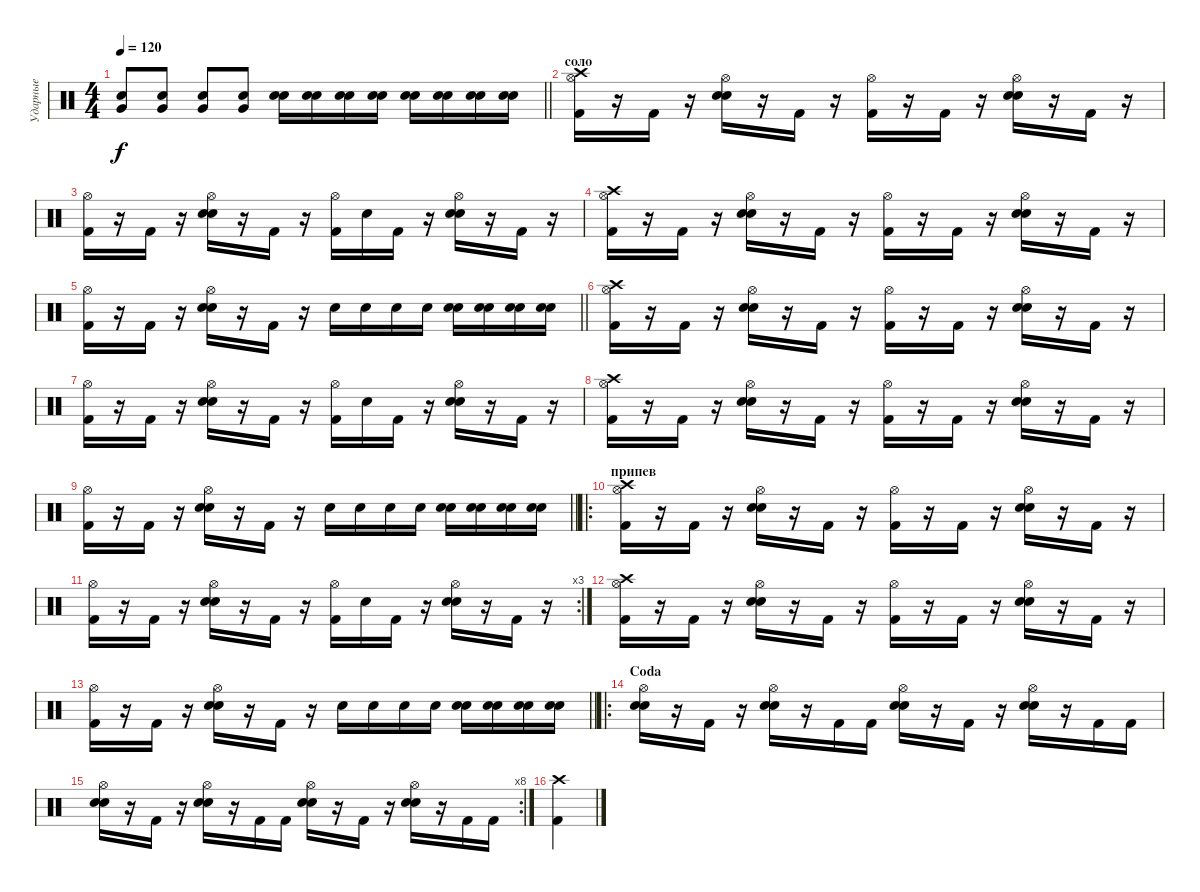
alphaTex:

\track ("Ударные" "Ударные") {instrument percussion}
\staff {score}
\articulation defaults
\ts (4 4)
\tempo 120
\clef neutral
\barLineRight lightlight
\ks c
("Very Low Tom (hit)" "Electric Snare (hit)").8{dy f} ("Very Low Tom (hit)" "Electric Snare (hit)").8 ("Very Low Tom (hit)" "Electric Snare (hit)").8 ("Very Low Tom (hit)" "Electric Snare (hit)").8 ("Electric Snare (hit)" "Electric Snare (hit)").16 ("Electric Snare (hit)" "Electric Snare (hit)").16 ("Electric Snare (hit)" "Electric Snare (hit)").16 ("Electric Snare (hit)" "Electric Snare (hit)").16 ("Electric Snare (hit)" "Electric Snare (hit)").16 ("Electric Snare (hit)" "Electric Snare (hit)").16 ("Electric Snare (hit)" "Electric Snare (hit)").16 ("Electric Snare (hit)" "Electric Snare (hit)").16 |
\section ("" "соло")
("Crash high (hit)" "Kick (hit) 2" "Hi-Hat (open)").16 r.16 "Kick (hit) 2".16 r.16 ("Electric Snare (hit)" "Electric Snare (hit)" "Hi-Hat (open)").16 r.16 "Kick (hit) 2".16 r.16 ("Kick (hit) 2" "Hi-Hat (open)").16 r.16 "Kick (hit) 2".16 r.16 ("Electric Snare (hit)" "Electric Snare (hit)" "Hi-Hat (open)").16 r.16 "Kick (hit) 2".16 r.16 |
("Kick (hit) 2" "Hi-Hat (open)").16 r.16 "Kick (hit) 2".16 r.16 ("Electric Snare (hit)" "Electric Snare (hit)" "Hi-Hat (open)").16 r.16 "Kick (hit) 2".16 r.16 ("Kick (hit) 2" "Hi-Hat (open)").16 "Electric Snare (hit)".16 "Kick (hit) 2".16 r.16 ("Electric Snare (hit)" "Electric Snare (hit)" "Hi-Hat (open)").16 r.16 "Kick (hit) 2".16 r.16 |
("Crash high (hit)" "Kick (hit) 2" "Hi-Hat (open)").16 r.16 "Kick (hit) 2".16 r.16 ("Electric Snare (hit)" "Electric Snare (hit)" "Hi-Hat (open)").16 r.16 "Kick (hit) 2".16 r.16 ("Kick (hit) 2" "Hi-Hat (open)").16 r.16 "Kick (hit) 2".16 r.16 ("Electric Snare (hit)" "Electric Snare (hit)" "Hi-Hat (open)").16 r.16 "Kick (hit) 2".16 r.16 |
\barLineRight lightlight
("Kick (hit) 2" "Hi-Hat (open)").16 r.16 "Kick (hit) 2".16 r.16 ("Electric Snare (hit)" "Electric Snare (hit)" "Hi-Hat (open)").16 r.16 "Kick (hit) 2".16 r.16 "Electric Snare (hit)".16 "Electric Snare (hit)".16 "Electric Snare (hit)".16 "Electric Snare (hit)".16 ("Electric Snare (hit)" "Electric Snare (hit)").16 ("Electric Snare (hit)" "Electric Snare (hit)").16 ("Electric Snare (hit)" "Electric Snare (hit)").16 ("Electric Snare (hit)" "Electric Snare (hit)").16 |
("Crash high (hit)" "Kick (hit) 2" "Hi-Hat (open)").16 r.16 "Kick (hit) 2".16 r.16 ("Electric Snare (hit)" "Electric Snare (hit)" "Hi-Hat (open)").16 r.16 "Kick (hit) 2".16 r.16 ("Kick (hit) 2" "Hi-Hat (open)").16 r.16 "Kick (hit) 2".16 r.16 ("Electric Snare (hit)" "Electric Snare (hit)" "Hi-Hat (open)").16 r.16 "Kick (hit) 2".16 r.16 |
("Kick (hit) 2" "Hi-Hat (open)").16 r.16 "Kick (hit) 2".16 r.16 ("Electric Snare (hit)" "Electric Snare (hit)" "Hi-Hat (open)").16 r.16 "Kick (hit) 2".16 r.16 ("Kick (hit) 2" "Hi-Hat (open)").16 "Electric Snare (hit)".16 "Kick (hit) 2".16 r.16 ("Electric Snare (hit)" "Electric Snare (hit)" "Hi-Hat (open)").16 r.16 "Kick (hit) 2".16 r.16 |
("Crash high (hit)" "Kick (hit) 2" "Hi-Hat (open)").16 r.16 "Kick (hit) 2".16 r.16 ("Electric Snare (hit)" "Electric Snare (hit)" "Hi-Hat (open)").16 r.16 "Kick (hit) 2".16 r.16 ("Kick (hit) 2" "Hi-Hat (open)").16 r.16 "Kick (hit) 2".16 r.16 ("Electric Snare (hit)" "Electric Snare (hit)" "Hi-Hat (open)").16 r.16 "Kick (hit) 2".16 r.16 |
\barLineRight lightlight
("Kick (hit) 2" "Hi-Hat (open)").16 r.16 "Kick (hit) 2".16 r.16 ("Electric Snare (hit)" "Electric Snare (hit)" "Hi-Hat (open)").16 r.16 "Kick (hit) 2".16 r.16 "Electric Snare (hit)".16 "Electric Snare (hit)".16 "Electric Snare (hit)".16 "Electric Snare (hit)".16 ("Electric Snare (hit)" "Electric Snare (hit)").16 ("Electric Snare (hit)" "Electric Snare (hit)").16 ("Electric Snare (hit)" "Electric Snare (hit)").16 ("Electric Snare (hit)" "Electric Snare (hit)").16 |
\ro
\section ("" "припев")
("Crash high (hit)" "Kick (hit) 2" "Hi-Hat (open)").16 r.16 "Kick (hit) 2".16 r.16 ("Electric Snare (hit)" "Electric Snare (hit)" "Hi-Hat (open)").16 r.16 "Kick (hit) 2".16 r.16 ("Kick (hit) 2" "Hi-Hat (open)").16 r.16 "Kick (hit) 2".16 r.16 ("Electric Snare (hit)" "Electric Snare (hit)" "Hi-Hat (open)").16 r.16 "Kick (hit) 2".16 r.16 |
\rc 3
("Kick (hit) 2" "Hi-Hat (open)").16 r.16 "Kick (hit) 2".16 r.16 ("Electric Snare (hit)" "Electric Snare (hit)" "Hi-Hat (open)").16 r.16 "Kick (hit) 2".16 r.16 ("Kick (hit) 2" "Hi-Hat (open)").16 "Electric Snare (hit)".16 "Kick (hit) 2".16 r.16 ("Electric Snare (hit)" "Electric Snare (hit)" "Hi-Hat (open)").16 r.16 "Kick (hit) 2".16 r.16 |
("Crash high (hit)" "Kick (hit) 2" "Hi-Hat (open)").16 r.16 "Kick (hit) 2".16 r.16 ("Electric Snare (hit)" "Electric Snare (hit)" "Hi-Hat (open)").16 r.16 "Kick (hit) 2".16 r.16 ("Kick (hit) 2" "Hi-Hat (open)").16 r.16 "Kick (hit) 2".16 r.16 ("Electric Snare (hit)" "Electric Snare (hit)" "Hi-Hat (open)").16 r.16 "Kick (hit) 2".16 r.16 |
\barLineRight lightlight
("Kick (hit) 2" "Hi-Hat (open)").16 r.16 "Kick (hit) 2".16 r.16 ("Electric Snare (hit)" "Electric Snare (hit)" "Hi-Hat (open)").16 r.16 "Kick (hit) 2".16 r.16 "Electric Snare (hit)".16 "Electric Snare (hit)".16 "Electric Snare (hit)".16 "Electric Snare (hit)".16 ("Electric Snare (hit)" "Electric Snare (hit)").16 ("Electric Snare (hit)" "Electric Snare (hit)").16 ("Electric Snare (hit)" "Electric Snare (hit)").16 ("Electric Snare (hit)" "Electric Snare (hit)").16 |
\ro
\section ("" "Coda")
("Electric Snare (hit)" "Electric Snare (hit)" "Hi-Hat (open)").16 r.16 "Kick (hit) 2".16 r.16 ("Electric Snare (hit)" "Electric Snare (hit)" "Hi-Hat (open)").16 r.16 "Kick (hit) 2".16 "Kick (hit) 2".16 ("Electric Snare (hit)" "Electric Snare (hit)" "Hi-Hat (open)").16 r.16 "Kick (hit) 2".16 r.16 ("Electric Snare (hit)" "Electric Snare (hit)" "Hi-Hat (open)").16 r.16 "Kick (hit) 2".16 "Kick (hit) 2".16 |
\rc 8
("Electric Snare (hit)" "Electric Snare (hit)" "Hi-Hat (open)").16 r.16 "Kick (hit) 2".16 r.16 ("Electric Snare (hit)" "Electric Snare (hit)" "Hi-Hat (open)").16 r.16 "Kick (hit) 2".16 "Kick (hit) 2".16 ("Electric Snare (hit)" "Electric Snare (hit)" "Hi-Hat (open)").16 r.16 "Kick (hit) 2".16 r.16 ("Electric Snare (hit)" "Electric Snare (hit)" "Hi-Hat (open)").16 r.16 "Kick (hit) 2".16 "Kick (hit) 2".16 |
("Crash high (hit)" "Kick (hit) 2").4
